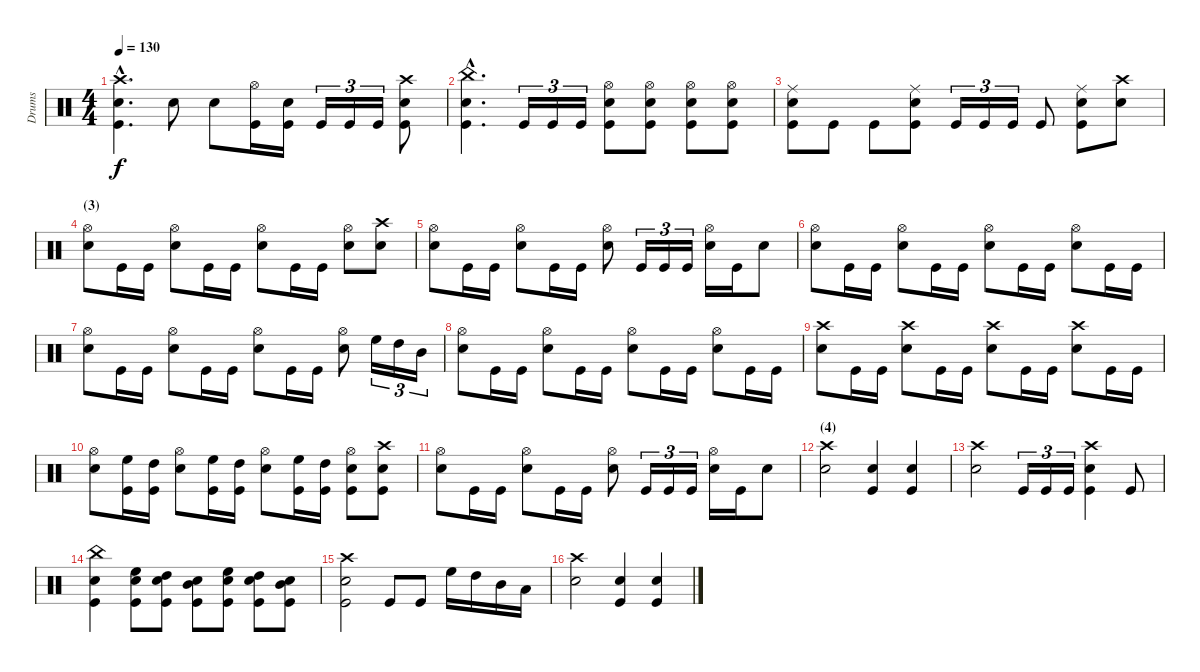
\track ("Drums" "Drums") {instrument percussion}
\staff {score}
\articulation defaults
\ts (4 4)
\tempo 130
\clef neutral
\ks c
("Crash high (hit)"{hac} "Snare (hit) 2"{hac} "Kick (hit)"{hac}).4{d dy f} "Snare (hit) 2".8 "Snare (hit) 2".8 ("Hi-Hat (open)" "Kick (hit)").16 ("Snare (hit) 2" "Kick (hit)").16 "Kick (hit)".16{tu (3 2)} "Kick (hit)".16{tu (3 2)} "Kick (hit)".16{tu (3 2)} ("Crash high (hit)" "Snare (hit) 2" "Kick (hit)").8 |
("China (hit)"{hac} "Snare (hit) 2"{hac} "Kick (hit)"{hac}).4{d} "Kick (hit)".16{tu (3 2)} "Kick (hit)".16{tu (3 2)} "Kick (hit)".16{tu (3 2)} ("Hi-Hat (open)" "Snare (hit) 2" "Kick (hit)").8 ("Hi-Hat (open)" "Snare (hit) 2" "Kick (hit)").8 ("Hi-Hat (open)" "Snare (hit) 2" "Kick (hit)").8 ("Hi-Hat (open)" "Snare (hit) 2" "Kick (hit)").8 |
("Ride (middle)" "Snare (hit) 2" "Kick (hit)").8 "Kick (hit)".8 "Kick (hit)".8 ("Ride (middle)" "Snare (hit) 2" "Kick (hit)").8 "Kick (hit)".16{tu (3 2)} "Kick (hit)".16{tu (3 2)} "Kick (hit)".16{tu (3 2)} "Kick (hit)".8 ("Ride (middle)" "Snare (hit) 2" "Kick (hit)").8 ("Crash high (hit)" "Snare (hit) 2").8 |
\section ("" "(3)")
("Hi-Hat (open)" "Snare (hit) 2").8 "Kick (hit)".16 "Kick (hit)".16 ("Hi-Hat (open)" "Snare (hit) 2").8 "Kick (hit)".16 "Kick (hit)".16 ("Hi-Hat (open)" "Snare (hit) 2").8 "Kick (hit)".16 "Kick (hit)".16 ("Hi-Hat (open)" "Snare (hit) 2").8 ("Crash high (hit)" "Snare (hit) 2").8 |
("Hi-Hat (open)" "Snare (hit) 2").8 "Kick (hit)".16 "Kick (hit)".16 ("Hi-Hat (open)" "Snare (hit) 2").8 "Kick (hit)".16 "Kick (hit)".16 ("Hi-Hat (open)" "Snare (hit) 2").8 "Kick (hit)".16{tu (3 2)} "Kick (hit)".16{tu (3 2)} "Kick (hit)".16{tu (3 2)} ("Hi-Hat (open)" "Snare (hit) 2").16 "Kick (hit)".16 "Snare (hit) 2".8 |
("Hi-Hat (open)" "Snare (hit) 2").8 "Kick (hit)".16 "Kick (hit)".16 ("Hi-Hat (open)" "Snare (hit) 2").8 "Kick (hit)".16 "Kick (hit)".16 ("Hi-Hat (open)" "Snare (hit) 2").8 "Kick (hit)".16 "Kick (hit)".16 ("Hi-Hat (open)" "Snare (hit) 2").8 "Kick (hit)".16 "Kick (hit)".16 |
("Hi-Hat (open)" "Snare (hit) 2").8 "Kick (hit)".16 "Kick (hit)".16 ("Hi-Hat (open)" "Snare (hit) 2").8 "Kick (hit)".16 "Kick (hit)".16 ("Hi-Hat (open)" "Snare (hit) 2").8 "Kick (hit)".16 "Kick (hit)".16 ("Hi-Hat (open)" "Snare (hit) 2").8 "High Floor Tom (hit)".16{tu (3 2)} "High Tom (hit)".16{tu (3 2)} "Mid Tom (hit)".16{tu (3 2)} |
("Hi-Hat (open)" "Snare (hit) 2").8 "Kick (hit)".16 "Kick (hit)".16 ("Hi-Hat (open)" "Snare (hit) 2").8 "Kick (hit)".16 "Kick (hit)".16 ("Hi-Hat (open)" "Snare (hit) 2").8 "Kick (hit)".16 "Kick (hit)".16 ("Hi-Hat (open)" "Snare (hit) 2").8 "Kick (hit)".16 "Kick (hit)".16 |
("Crash high (hit)" "Snare (hit) 2").8 "Kick (hit)".16 "Kick (hit)".16 ("Crash high (hit)" "Snare (hit) 2").8 "Kick (hit)".16 "Kick (hit)".16 ("Crash high (hit)" "Snare (hit) 2").8 "Kick (hit)".16 "Kick (hit)".16 ("Crash high (hit)" "Snare (hit) 2").8 "Kick (hit)".16 "Kick (hit)".16 |
("Hi-Hat (open)" "Snare (hit) 2").8 ("High Floor Tom (hit)" "Kick (hit)").16 ("High Tom (hit)" "Kick (hit)").16 ("Hi-Hat (open)" "Snare (hit) 2").8 ("High Floor Tom (hit)" "Kick (hit)").16 ("High Tom (hit)" "Kick (hit)").16 ("Hi-Hat (open)" "Snare (hit) 2").8 ("High Floor Tom (hit)" "Kick (hit)").16 ("High Tom (hit)" "Kick (hit)").16 ("Hi-Hat (open)" "Snare (hit) 2" "Kick (hit)").8 ("Crash high (hit)" "Snare (hit) 2" "Kick (hit)").8 |
("Hi-Hat (open)" "Snare (hit) 2").8 "Kick (hit)".16 "Kick (hit)".16 ("Hi-Hat (open)" "Snare (hit) 2").8 "Kick (hit)".16 "Kick (hit)".16 ("Hi-Hat (open)" "Snare (hit) 2").8 "Kick (hit)".16{tu (3 2)} "Kick (hit)".16{tu (3 2)} "Kick (hit)".16{tu (3 2)} ("Hi-Hat (open)" "Snare (hit) 2").16 "Kick (hit)".16 "Snare (hit) 2".8 |
\section ("" "(4)")
("Crash high (hit)" "Snare (hit) 2").2 ("Snare (hit) 2" "Kick (hit)").4 ("Snare (hit) 2" "Kick (hit)").4 |
("Crash high (hit)" "Snare (hit) 2").2 "Kick (hit)".16{tu (3 2)} "Kick (hit)".16{tu (3 2)} "Kick (hit)".16{tu (3 2)} ("Crash high (hit)" "Snare (hit) 2" "Kick (hit)").4 "Kick (hit)".8 |
("China (hit)" "Snare (hit) 2" "Kick (hit)").4 ("High Floor Tom (hit)" "Snare (hit) 2" "Kick (hit)").8 ("High Tom (hit)" "Snare (hit) 2" "Kick (hit)").8 ("Mid Tom (hit)" "Snare (hit) 2" "Kick (hit)").8 ("High Floor Tom (hit)" "Snare (hit) 2" "Kick (hit)").8 ("High Tom (hit)" "Snare (hit) 2" "Kick (hit)").8 ("Mid Tom (hit)" "Snare (hit) 2" "Kick (hit)").8 |
("Crash high (hit)" "Snare (hit) 2" "Kick (hit)").2 "Kick (hit)".8 "Kick (hit)".8 "High Floor Tom (hit)".16 "High Tom (hit)".16 "Mid Tom (hit)".16 "Low Tom (hit)".16 |
("Crash high (hit)" "Snare (hit) 2").2 ("Snare (hit) 2" "Kick (hit)").4 ("Snare (hit) 2" "Kick (hit)").4
